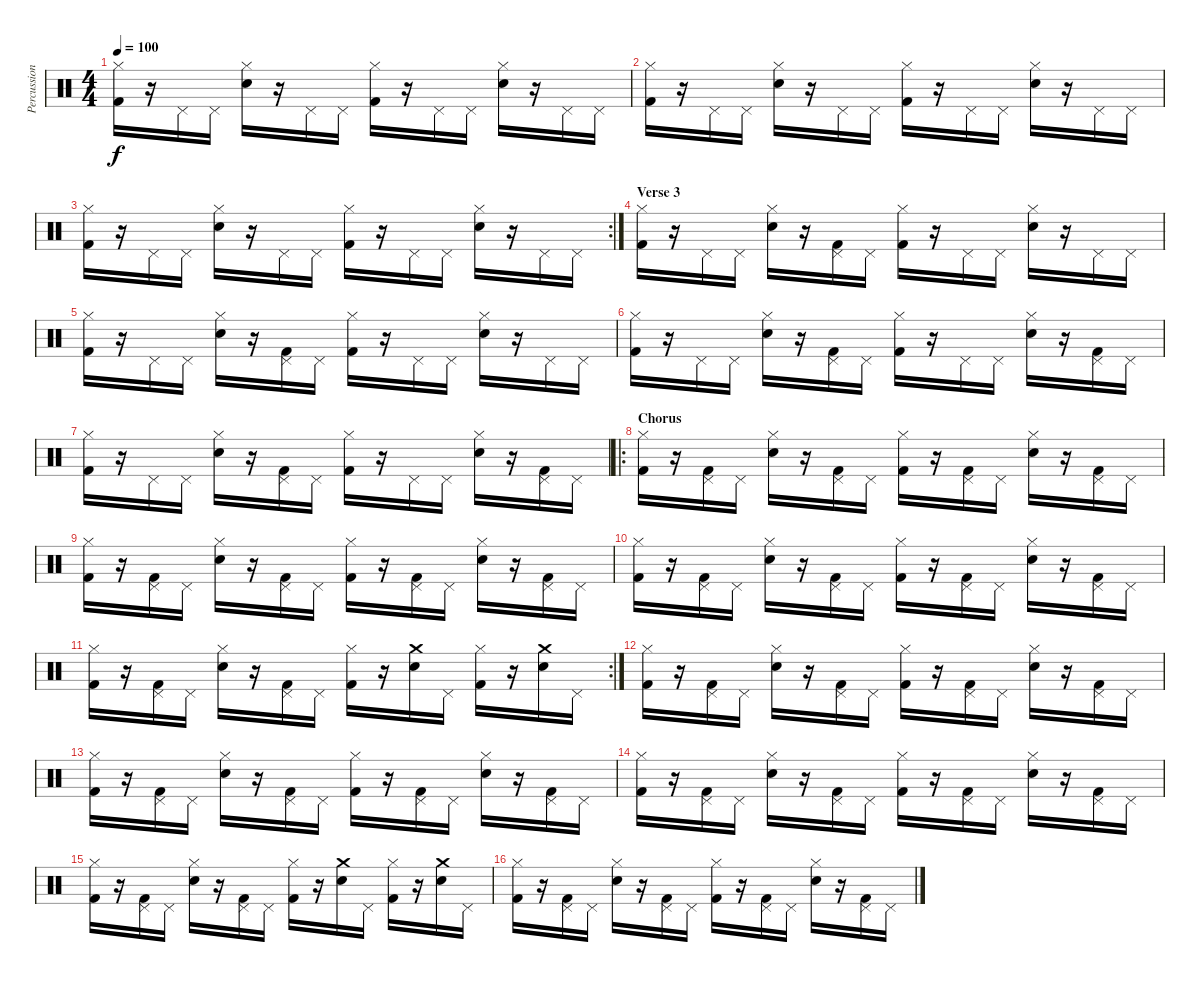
\track ("Percussion" "Percussion") {instrument percussion}
\staff {score}
\articulation defaults
\ts (4 4)
\tempo 100
\clef neutral
\ks c
("Hi-Hat (closed)" "Kick (hit) 2").16{dy f} r.16 "Pedal Hi-Hat (hit)".16 "Pedal Hi-Hat (hit)".16 ("Hi-Hat (closed)" "Snare (hit) 2").16 r.16 "Pedal Hi-Hat (hit)".16 "Pedal Hi-Hat (hit)".16 ("Hi-Hat (closed)" "Kick (hit) 2").16 r.16 "Pedal Hi-Hat (hit)".16 "Pedal Hi-Hat (hit)".16 ("Hi-Hat (closed)" "Snare (hit) 2").16 r.16 "Pedal Hi-Hat (hit)".16 "Pedal Hi-Hat (hit)".16 |
("Hi-Hat (closed)" "Kick (hit) 2").16 r.16 "Pedal Hi-Hat (hit)".16 "Pedal Hi-Hat (hit)".16 ("Hi-Hat (closed)" "Snare (hit) 2").16 r.16 "Pedal Hi-Hat (hit)".16 "Pedal Hi-Hat (hit)".16 ("Hi-Hat (closed)" "Kick (hit) 2").16 r.16 "Pedal Hi-Hat (hit)".16 "Pedal Hi-Hat (hit)".16 ("Hi-Hat (closed)" "Snare (hit) 2").16 r.16 "Pedal Hi-Hat (hit)".16 "Pedal Hi-Hat (hit)".16 |
\rc 2
("Hi-Hat (closed)" "Kick (hit) 2").16 r.16 "Pedal Hi-Hat (hit)".16 "Pedal Hi-Hat (hit)".16 ("Hi-Hat (closed)" "Snare (hit) 2").16 r.16 "Pedal Hi-Hat (hit)".16 "Pedal Hi-Hat (hit)".16 ("Hi-Hat (closed)" "Kick (hit) 2").16 r.16 "Pedal Hi-Hat (hit)".16 "Pedal Hi-Hat (hit)".16 ("Hi-Hat (closed)" "Snare (hit) 2").16 r.16 "Pedal Hi-Hat (hit)".16 "Pedal Hi-Hat (hit)".16 |
\section ("" "Verse 3")
("Hi-Hat (closed)" "Kick (hit) 2").16 r.16 "Pedal Hi-Hat (hit)".16 "Pedal Hi-Hat (hit)".16 ("Hi-Hat (closed)" "Snare (hit) 2").16 r.16 ("Pedal Hi-Hat (hit)" "Kick (hit) 2").16 "Pedal Hi-Hat (hit)".16 ("Hi-Hat (closed)" "Kick (hit) 2").16 r.16 "Pedal Hi-Hat (hit)".16 "Pedal Hi-Hat (hit)".16 ("Hi-Hat (closed)" "Snare (hit) 2").16 r.16 "Pedal Hi-Hat (hit)".16 "Pedal Hi-Hat (hit)".16 |
("Hi-Hat (closed)" "Kick (hit) 2").16 r.16 "Pedal Hi-Hat (hit)".16 "Pedal Hi-Hat (hit)".16 ("Hi-Hat (closed)" "Snare (hit) 2").16 r.16 ("Pedal Hi-Hat (hit)" "Kick (hit) 2").16 "Pedal Hi-Hat (hit)".16 ("Hi-Hat (closed)" "Kick (hit) 2").16 r.16 "Pedal Hi-Hat (hit)".16 "Pedal Hi-Hat (hit)".16 ("Hi-Hat (closed)" "Snare (hit) 2").16 r.16 "Pedal Hi-Hat (hit)".16 "Pedal Hi-Hat (hit)".16 |
("Hi-Hat (closed)" "Kick (hit) 2").16 r.16 "Pedal Hi-Hat (hit)".16 "Pedal Hi-Hat (hit)".16 ("Hi-Hat (closed)" "Snare (hit) 2").16 r.16 ("Pedal Hi-Hat (hit)" "Kick (hit) 2").16 "Pedal Hi-Hat (hit)".16 ("Hi-Hat (closed)" "Kick (hit) 2").16 r.16 "Pedal Hi-Hat (hit)".16 "Pedal Hi-Hat (hit)".16 ("Hi-Hat (closed)" "Snare (hit) 2").16 r.16 ("Pedal Hi-Hat (hit)" "Kick (hit) 2").16 "Pedal Hi-Hat (hit)".16 |
("Hi-Hat (closed)" "Kick (hit) 2").16 r.16 "Pedal Hi-Hat (hit)".16 "Pedal Hi-Hat (hit)".16 ("Hi-Hat (closed)" "Snare (hit) 2").16 r.16 ("Pedal Hi-Hat (hit)" "Kick (hit) 2").16 "Pedal Hi-Hat (hit)".16 ("Hi-Hat (closed)" "Kick (hit) 2").16 r.16 "Pedal Hi-Hat (hit)".16 "Pedal Hi-Hat (hit)".16 ("Hi-Hat (closed)" "Snare (hit) 2").16 r.16 ("Pedal Hi-Hat (hit)" "Kick (hit) 2").16 "Pedal Hi-Hat (hit)".16 |
\ro
\section ("" "Chorus")
("Hi-Hat (closed)" "Kick (hit) 2").16 r.16 ("Pedal Hi-Hat (hit)" "Kick (hit) 2").16 "Pedal Hi-Hat (hit)".16 ("Hi-Hat (closed)" "Snare (hit) 2").16 r.16 ("Pedal Hi-Hat (hit)" "Kick (hit) 2").16 "Pedal Hi-Hat (hit)".16 ("Hi-Hat (closed)" "Kick (hit) 2").16 r.16 ("Pedal Hi-Hat (hit)" "Kick (hit) 2").16 "Pedal Hi-Hat (hit)".16 ("Hi-Hat (closed)" "Snare (hit) 2").16 r.16 ("Pedal Hi-Hat (hit)" "Kick (hit) 2").16 "Pedal Hi-Hat (hit)".16 |
("Hi-Hat (closed)" "Kick (hit) 2").16 r.16 ("Pedal Hi-Hat (hit)" "Kick (hit) 2").16 "Pedal Hi-Hat (hit)".16 ("Hi-Hat (closed)" "Snare (hit) 2").16 r.16 ("Pedal Hi-Hat (hit)" "Kick (hit) 2").16 "Pedal Hi-Hat (hit)".16 ("Hi-Hat (closed)" "Kick (hit) 2").16 r.16 ("Pedal Hi-Hat (hit)" "Kick (hit) 2").16 "Pedal Hi-Hat (hit)".16 ("Hi-Hat (closed)" "Snare (hit) 2").16 r.16 ("Pedal Hi-Hat (hit)" "Kick (hit) 2").16 "Pedal Hi-Hat (hit)".16 |
("Hi-Hat (closed)" "Kick (hit) 2").16 r.16 ("Pedal Hi-Hat (hit)" "Kick (hit) 2").16 "Pedal Hi-Hat (hit)".16 ("Hi-Hat (closed)" "Snare (hit) 2").16 r.16 ("Pedal Hi-Hat (hit)" "Kick (hit) 2").16 "Pedal Hi-Hat (hit)".16 ("Hi-Hat (closed)" "Kick (hit) 2").16 r.16 ("Pedal Hi-Hat (hit)" "Kick (hit) 2").16 "Pedal Hi-Hat (hit)".16 ("Hi-Hat (closed)" "Snare (hit) 2").16 r.16 ("Pedal Hi-Hat (hit)" "Kick (hit) 2").16 "Pedal Hi-Hat (hit)".16 |
\rc 2
("Hi-Hat (closed)" "Kick (hit) 2").16 r.16 ("Pedal Hi-Hat (hit)" "Kick (hit) 2").16 "Pedal Hi-Hat (hit)".16 ("Hi-Hat (closed)" "Snare (hit) 2").16 r.16 ("Pedal Hi-Hat (hit)" "Kick (hit) 2").16 "Pedal Hi-Hat (hit)".16 ("Hi-Hat (closed)" "Kick (hit) 2").16 r.16 ("Crash medium (hit)" "Snare (hit) 2").16 "Pedal Hi-Hat (hit)".16 ("Hi-Hat (closed)" "Kick (hit) 2").16 r.16 ("Crash medium (hit)" "Snare (hit) 2").16 "Pedal Hi-Hat (hit)".16 |
("Hi-Hat (closed)" "Kick (hit) 2").16 r.16 ("Pedal Hi-Hat (hit)" "Kick (hit) 2").16 "Pedal Hi-Hat (hit)".16 ("Hi-Hat (closed)" "Snare (hit) 2").16 r.16 ("Pedal Hi-Hat (hit)" "Kick (hit) 2").16 "Pedal Hi-Hat (hit)".16 ("Hi-Hat (closed)" "Kick (hit) 2").16 r.16 ("Pedal Hi-Hat (hit)" "Kick (hit) 2").16 "Pedal Hi-Hat (hit)".16 ("Hi-Hat (closed)" "Snare (hit) 2").16 r.16 ("Pedal Hi-Hat (hit)" "Kick (hit) 2").16 "Pedal Hi-Hat (hit)".16 |
("Hi-Hat (closed)" "Kick (hit) 2").16 r.16 ("Pedal Hi-Hat (hit)" "Kick (hit) 2").16 "Pedal Hi-Hat (hit)".16 ("Hi-Hat (closed)" "Snare (hit) 2").16 r.16 ("Pedal Hi-Hat (hit)" "Kick (hit) 2").16 "Pedal Hi-Hat (hit)".16 ("Hi-Hat (closed)" "Kick (hit) 2").16 r.16 ("Pedal Hi-Hat (hit)" "Kick (hit) 2").16 "Pedal Hi-Hat (hit)".16 ("Hi-Hat (closed)" "Snare (hit) 2").16 r.16 ("Pedal Hi-Hat (hit)" "Kick (hit) 2").16 "Pedal Hi-Hat (hit)".16 |
("Hi-Hat (closed)" "Kick (hit) 2").16 r.16 ("Pedal Hi-Hat (hit)" "Kick (hit) 2").16 "Pedal Hi-Hat (hit)".16 ("Hi-Hat (closed)" "Snare (hit) 2").16 r.16 ("Pedal Hi-Hat (hit)" "Kick (hit) 2").16 "Pedal Hi-Hat (hit)".16 ("Hi-Hat (closed)" "Kick (hit) 2").16 r.16 ("Pedal Hi-Hat (hit)" "Kick (hit) 2").16 "Pedal Hi-Hat (hit)".16 ("Hi-Hat (closed)" "Snare (hit) 2").16 r.16 ("Pedal Hi-Hat (hit)" "Kick (hit) 2").16 "Pedal Hi-Hat (hit)".16 |
("Hi-Hat (closed)" "Kick (hit) 2").16 r.16 ("Pedal Hi-Hat (hit)" "Kick (hit) 2").16 "Pedal Hi-Hat (hit)".16 ("Hi-Hat (closed)" "Snare (hit) 2").16 r.16 ("Pedal Hi-Hat (hit)" "Kick (hit) 2").16 "Pedal Hi-Hat (hit)".16 ("Hi-Hat (closed)" "Kick (hit) 2").16 r.16 ("Crash medium (hit)" "Snare (hit) 2").16 "Pedal Hi-Hat (hit)".16 ("Hi-Hat (closed)" "Kick (hit) 2").16 r.16 ("Crash medium (hit)" "Snare (hit) 2").16 "Pedal Hi-Hat (hit)".16 |
("Hi-Hat (closed)" "Kick (hit) 2").16 r.16 ("Pedal Hi-Hat (hit)" "Kick (hit) 2").16 "Pedal Hi-Hat (hit)".16 ("Hi-Hat (closed)" "Snare (hit) 2").16 r.16 ("Pedal Hi-Hat (hit)" "Kick (hit) 2").16 "Pedal Hi-Hat (hit)".16 ("Hi-Hat (closed)" "Kick (hit) 2").16 r.16 ("Pedal Hi-Hat (hit)" "Kick (hit) 2").16 "Pedal Hi-Hat (hit)".16 ("Hi-Hat (closed)" "Snare (hit) 2").16 r.16 ("Pedal Hi-Hat (hit)" "Kick (hit) 2").16 "Pedal Hi-Hat (hit)".16
